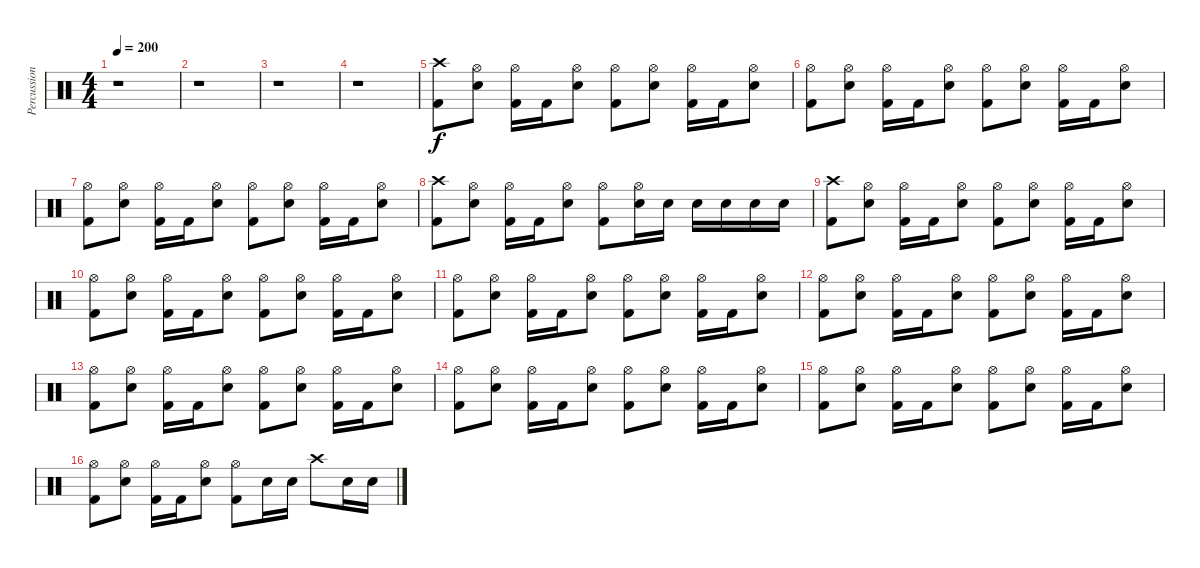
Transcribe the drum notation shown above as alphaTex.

\track ("Percussions" "Percussion") {instrument percussion}
\staff {score}
\articulation defaults
\ts (4 4)
\tempo 200
\clef neutral
\ks c
r.1{dy f} |
r.1 |
r.1 |
r.1 |
("Crash high (hit)" "Kick (hit) 2").8 ("Hi-Hat (open)" "Electric Snare (hit)").8 ("Hi-Hat (open)" "Kick (hit) 2").16 "Kick (hit) 2".16 ("Hi-Hat (open)" "Electric Snare (hit)").8 ("Hi-Hat (open)" "Kick (hit) 2").8 ("Hi-Hat (open)" "Electric Snare (hit)").8 ("Hi-Hat (open)" "Kick (hit) 2").16 "Kick (hit) 2".16 ("Hi-Hat (open)" "Electric Snare (hit)").8 |
("Hi-Hat (open)" "Kick (hit) 2").8 ("Hi-Hat (open)" "Electric Snare (hit)").8 ("Hi-Hat (open)" "Kick (hit) 2").16 "Kick (hit) 2".16 ("Hi-Hat (open)" "Electric Snare (hit)").8 ("Hi-Hat (open)" "Kick (hit) 2").8 ("Hi-Hat (open)" "Electric Snare (hit)").8 ("Hi-Hat (open)" "Kick (hit) 2").16 "Kick (hit) 2".16 ("Hi-Hat (open)" "Electric Snare (hit)").8 |
("Hi-Hat (open)" "Kick (hit) 2").8 ("Hi-Hat (open)" "Electric Snare (hit)").8 ("Hi-Hat (open)" "Kick (hit) 2").16 "Kick (hit) 2".16 ("Hi-Hat (open)" "Electric Snare (hit)").8 ("Hi-Hat (open)" "Kick (hit) 2").8 ("Hi-Hat (open)" "Electric Snare (hit)").8 ("Hi-Hat (open)" "Kick (hit) 2").16 "Kick (hit) 2".16 ("Hi-Hat (open)" "Electric Snare (hit)").8 |
("Crash high (hit)" "Kick (hit) 2").8 ("Hi-Hat (open)" "Electric Snare (hit)").8 ("Hi-Hat (open)" "Kick (hit) 2").16 "Kick (hit) 2".16 ("Hi-Hat (open)" "Electric Snare (hit)").8 ("Hi-Hat (open)" "Kick (hit) 2").8 ("Hi-Hat (open)" "Electric Snare (hit)").16 "Electric Snare (hit)".16 "Electric Snare (hit)".16 "Electric Snare (hit)".16 "Electric Snare (hit)".16 "Electric Snare (hit)".16 |
("Crash high (hit)" "Kick (hit) 2").8 ("Hi-Hat (open)" "Electric Snare (hit)").8 ("Hi-Hat (open)" "Kick (hit) 2").16 "Kick (hit) 2".16 ("Hi-Hat (open)" "Electric Snare (hit)").8 ("Hi-Hat (open)" "Kick (hit) 2").8 ("Hi-Hat (open)" "Electric Snare (hit)").8 ("Hi-Hat (open)" "Kick (hit) 2").16 "Kick (hit) 2".16 ("Hi-Hat (open)" "Electric Snare (hit)").8 |
("Hi-Hat (open)" "Kick (hit) 2").8 ("Hi-Hat (open)" "Electric Snare (hit)").8 ("Hi-Hat (open)" "Kick (hit) 2").16 "Kick (hit) 2".16 ("Hi-Hat (open)" "Electric Snare (hit)").8 ("Hi-Hat (open)" "Kick (hit) 2").8 ("Hi-Hat (open)" "Electric Snare (hit)").8 ("Hi-Hat (open)" "Kick (hit) 2").16 "Kick (hit) 2".16 ("Hi-Hat (open)" "Electric Snare (hit)").8 |
("Hi-Hat (open)" "Kick (hit) 2").8 ("Hi-Hat (open)" "Electric Snare (hit)").8 ("Hi-Hat (open)" "Kick (hit) 2").16 "Kick (hit) 2".16 ("Hi-Hat (open)" "Electric Snare (hit)").8 ("Hi-Hat (open)" "Kick (hit) 2").8 ("Hi-Hat (open)" "Electric Snare (hit)").8 ("Hi-Hat (open)" "Kick (hit) 2").16 "Kick (hit) 2".16 ("Hi-Hat (open)" "Electric Snare (hit)").8 |
("Hi-Hat (open)" "Kick (hit) 2").8 ("Hi-Hat (open)" "Electric Snare (hit)").8 ("Hi-Hat (open)" "Kick (hit) 2").16 "Kick (hit) 2".16 ("Hi-Hat (open)" "Electric Snare (hit)").8 ("Hi-Hat (open)" "Kick (hit) 2").8 ("Hi-Hat (open)" "Electric Snare (hit)").8 ("Hi-Hat (open)" "Kick (hit) 2").16 "Kick (hit) 2".16 ("Hi-Hat (open)" "Electric Snare (hit)").8 |
("Hi-Hat (open)" "Kick (hit) 2").8 ("Hi-Hat (open)" "Electric Snare (hit)").8 ("Hi-Hat (open)" "Kick (hit) 2").16 "Kick (hit) 2".16 ("Hi-Hat (open)" "Electric Snare (hit)").8 ("Hi-Hat (open)" "Kick (hit) 2").8 ("Hi-Hat (open)" "Electric Snare (hit)").8 ("Hi-Hat (open)" "Kick (hit) 2").16 "Kick (hit) 2".16 ("Hi-Hat (open)" "Electric Snare (hit)").8 |
("Hi-Hat (open)" "Kick (hit) 2").8 ("Hi-Hat (open)" "Electric Snare (hit)").8 ("Hi-Hat (open)" "Kick (hit) 2").16 "Kick (hit) 2".16 ("Hi-Hat (open)" "Electric Snare (hit)").8 ("Hi-Hat (open)" "Kick (hit) 2").8 ("Hi-Hat (open)" "Electric Snare (hit)").8 ("Hi-Hat (open)" "Kick (hit) 2").16 "Kick (hit) 2".16 ("Hi-Hat (open)" "Electric Snare (hit)").8 |
("Hi-Hat (open)" "Kick (hit) 2").8 ("Hi-Hat (open)" "Electric Snare (hit)").8 ("Hi-Hat (open)" "Kick (hit) 2").16 "Kick (hit) 2".16 ("Hi-Hat (open)" "Electric Snare (hit)").8 ("Hi-Hat (open)" "Kick (hit) 2").8 ("Hi-Hat (open)" "Electric Snare (hit)").8 ("Hi-Hat (open)" "Kick (hit) 2").16 "Kick (hit) 2".16 ("Hi-Hat (open)" "Electric Snare (hit)").8 |
("Hi-Hat (open)" "Kick (hit) 2").8 ("Hi-Hat (open)" "Electric Snare (hit)").8 ("Hi-Hat (open)" "Kick (hit) 2").16 "Kick (hit) 2".16 ("Hi-Hat (open)" "Electric Snare (hit)").8 ("Hi-Hat (open)" "Kick (hit) 2").8 "Electric Snare (hit)".16 "Electric Snare (hit)".16 "Crash high (hit)".8 "Electric Snare (hit)".16 "Electric Snare (hit)".16
